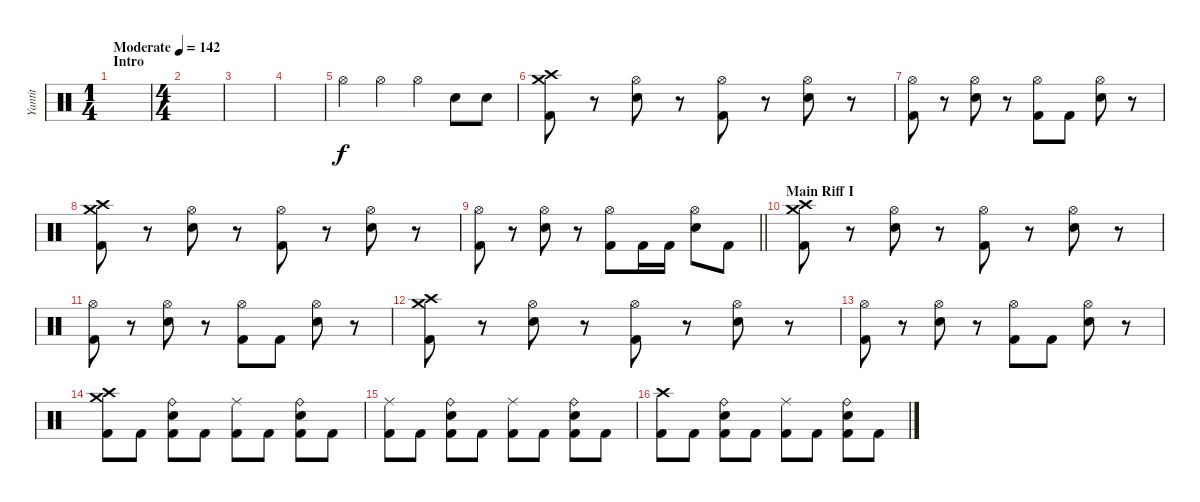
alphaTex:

\track ("Yantit" "Yantit") {instrument percussion}
\staff {score}
\articulation defaults
\ts (1 4)
\section ("" "Intro")
\tempo (142 "Moderate")
\clef neutral
\ks c
|
\ts (4 4)
|
|
|
"Hi-Hat (open)".4 "Hi-Hat (open)".4 "Hi-Hat (open)".4 "Electric Snare (hit)".8 "Electric Snare (hit)".8 |
("Crash medium (hit)" "Crash high (hit)" "Kick (hit) 2").8 r.8 ("Hi-Hat (open)" "Electric Snare (hit)").8 r.8 ("Hi-Hat (open)" "Kick (hit) 2").8 r.8 ("Hi-Hat (open)" "Electric Snare (hit)").8 r.8 |
("Hi-Hat (open)" "Kick (hit) 2").8 r.8 ("Hi-Hat (open)" "Electric Snare (hit)").8 r.8 ("Hi-Hat (open)" "Kick (hit) 2").8 "Kick (hit) 2".8 ("Hi-Hat (open)" "Electric Snare (hit)").8 r.8 |
("Crash medium (hit)" "Crash high (hit)" "Kick (hit) 2").8 r.8 ("Hi-Hat (open)" "Electric Snare (hit)").8 r.8 ("Hi-Hat (open)" "Kick (hit) 2").8 r.8 ("Hi-Hat (open)" "Electric Snare (hit)").8 r.8 |
\barLineRight lightlight
("Hi-Hat (open)" "Kick (hit) 2").8 r.8 ("Hi-Hat (open)" "Electric Snare (hit)").8 r.8 ("Hi-Hat (open)" "Kick (hit) 2").8 "Kick (hit) 2".16 "Kick (hit) 2".16 ("Hi-Hat (open)" "Electric Snare (hit)").8 "Kick (hit) 2".8 |
\section ("" "Main Riff I")
("Crash medium (hit)" "Crash high (hit)" "Kick (hit) 2").8 r.8 ("Hi-Hat (open)" "Electric Snare (hit)").8 r.8 ("Hi-Hat (open)" "Kick (hit) 2").8 r.8 ("Hi-Hat (open)" "Electric Snare (hit)").8 r.8 |
("Hi-Hat (open)" "Kick (hit) 2").8 r.8 ("Hi-Hat (open)" "Electric Snare (hit)").8 r.8 ("Hi-Hat (open)" "Kick (hit) 2").8 "Kick (hit) 2".8 ("Hi-Hat (open)" "Electric Snare (hit)").8 r.8 |
("Crash medium (hit)" "Crash high (hit)" "Kick (hit) 2").8 r.8 ("Hi-Hat (open)" "Electric Snare (hit)").8 r.8 ("Hi-Hat (open)" "Kick (hit) 2").8 r.8 ("Hi-Hat (open)" "Electric Snare (hit)").8 r.8 |
("Hi-Hat (open)" "Kick (hit) 2").8 r.8 ("Hi-Hat (open)" "Electric Snare (hit)").8 r.8 ("Hi-Hat (open)" "Kick (hit) 2").8 "Kick (hit) 2".8 ("Hi-Hat (open)" "Electric Snare (hit)").8 r.8 |
("Crash medium (hit)" "Crash high (hit)" "Kick (hit) 2").8 "Kick (hit) 2".8 ("Ride (bell)" "Electric Snare (hit)" "Kick (hit) 2").8 "Kick (hit) 2".8 ("Ride (middle)" "Kick (hit) 2").8 "Kick (hit) 2".8 ("Ride (bell)" "Electric Snare (hit)" "Kick (hit) 2").8 "Kick (hit) 2".8 |
("Ride (middle)" "Kick (hit) 2").8 "Kick (hit) 2".8 ("Ride (bell)" "Electric Snare (hit)" "Kick (hit) 2").8 "Kick (hit) 2".8 ("Ride (middle)" "Kick (hit) 2").8 "Kick (hit) 2".8 ("Ride (bell)" "Electric Snare (hit)" "Kick (hit) 2").8 "Kick (hit) 2".8 |
("Crash high (hit)" "Kick (hit) 2").8 "Kick (hit) 2".8 ("Ride (bell)" "Electric Snare (hit)" "Kick (hit) 2").8 "Kick (hit) 2".8 ("Ride (middle)" "Kick (hit) 2").8 "Kick (hit) 2".8 ("Ride (bell)" "Electric Snare (hit)" "Kick (hit) 2").8 "Kick (hit) 2".8
